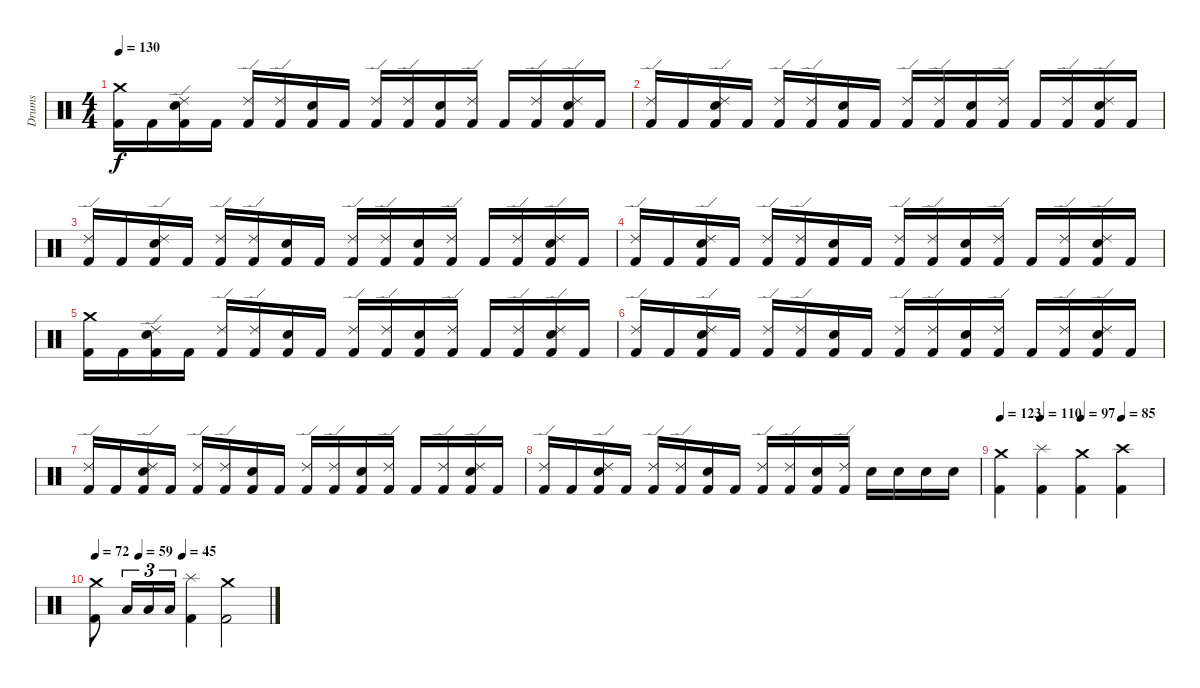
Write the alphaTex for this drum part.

\track ("Drums" "Drums") {instrument percussion}
\staff {score}
\articulation defaults
\ts (4 4)
\tempo 130
\clef neutral
\ks c
("Crash medium (hit)" "Kick (hit) 2").16{dy f} "Kick (hit) 2".16 ("Electric Snare (hit)" "Ride (edge) 2" "Kick (hit) 2").16 "Kick (hit) 2".16 ("Ride (edge) 2" "Kick (hit) 2").16 ("Ride (edge) 2" "Kick (hit) 2").16 ("Electric Snare (hit)" "Kick (hit) 2").16 "Kick (hit) 2".16 ("Ride (edge) 2" "Kick (hit) 2").16 ("Ride (edge) 2" "Kick (hit) 2").16 ("Electric Snare (hit)" "Kick (hit) 2").16 ("Ride (edge) 2" "Kick (hit) 2").16 "Kick (hit) 2".16 ("Ride (edge) 2" "Kick (hit) 2").16 ("Electric Snare (hit)" "Ride (edge) 2" "Kick (hit) 2").16 "Kick (hit) 2".16 |
("Ride (edge) 2" "Kick (hit) 2").16 "Kick (hit) 2".16 ("Electric Snare (hit)" "Ride (edge) 2" "Kick (hit) 2").16 "Kick (hit) 2".16 ("Ride (edge) 2" "Kick (hit) 2").16 ("Ride (edge) 2" "Kick (hit) 2").16 ("Electric Snare (hit)" "Kick (hit) 2").16 "Kick (hit) 2".16 ("Ride (edge) 2" "Kick (hit) 2").16 ("Ride (edge) 2" "Kick (hit) 2").16 ("Electric Snare (hit)" "Kick (hit) 2").16 ("Ride (edge) 2" "Kick (hit) 2").16 "Kick (hit) 2".16 ("Ride (edge) 2" "Kick (hit) 2").16 ("Electric Snare (hit)" "Ride (edge) 2" "Kick (hit) 2").16 "Kick (hit) 2".16 |
("Ride (edge) 2" "Kick (hit) 2").16 "Kick (hit) 2".16 ("Electric Snare (hit)" "Ride (edge) 2" "Kick (hit) 2").16 "Kick (hit) 2".16 ("Ride (edge) 2" "Kick (hit) 2").16 ("Ride (edge) 2" "Kick (hit) 2").16 ("Electric Snare (hit)" "Kick (hit) 2").16 "Kick (hit) 2".16 ("Ride (edge) 2" "Kick (hit) 2").16 ("Ride (edge) 2" "Kick (hit) 2").16 ("Electric Snare (hit)" "Kick (hit) 2").16 ("Ride (edge) 2" "Kick (hit) 2").16 "Kick (hit) 2".16 ("Ride (edge) 2" "Kick (hit) 2").16 ("Electric Snare (hit)" "Ride (edge) 2" "Kick (hit) 2").16 "Kick (hit) 2".16 |
("Ride (edge) 2" "Kick (hit) 2").16 "Kick (hit) 2".16 ("Electric Snare (hit)" "Ride (edge) 2" "Kick (hit) 2").16 "Kick (hit) 2".16 ("Ride (edge) 2" "Kick (hit) 2").16 ("Ride (edge) 2" "Kick (hit) 2").16 ("Electric Snare (hit)" "Kick (hit) 2").16 "Kick (hit) 2".16 ("Ride (edge) 2" "Kick (hit) 2").16 ("Ride (edge) 2" "Kick (hit) 2").16 ("Electric Snare (hit)" "Kick (hit) 2").16 ("Ride (edge) 2" "Kick (hit) 2").16 "Kick (hit) 2".16 ("Ride (edge) 2" "Kick (hit) 2").16 ("Electric Snare (hit)" "Ride (edge) 2" "Kick (hit) 2").16 "Kick (hit) 2".16 |
("Crash medium (hit)" "Kick (hit) 2").16 "Kick (hit) 2".16 ("Electric Snare (hit)" "Ride (edge) 2" "Kick (hit) 2").16 "Kick (hit) 2".16 ("Ride (edge) 2" "Kick (hit) 2").16 ("Ride (edge) 2" "Kick (hit) 2").16 ("Electric Snare (hit)" "Kick (hit) 2").16 "Kick (hit) 2".16 ("Ride (edge) 2" "Kick (hit) 2").16 ("Ride (edge) 2" "Kick (hit) 2").16 ("Electric Snare (hit)" "Kick (hit) 2").16 ("Ride (edge) 2" "Kick (hit) 2").16 "Kick (hit) 2".16 ("Ride (edge) 2" "Kick (hit) 2").16 ("Electric Snare (hit)" "Ride (edge) 2" "Kick (hit) 2").16 "Kick (hit) 2".16 |
("Ride (edge) 2" "Kick (hit) 2").16 "Kick (hit) 2".16 ("Electric Snare (hit)" "Ride (edge) 2" "Kick (hit) 2").16 "Kick (hit) 2".16 ("Ride (edge) 2" "Kick (hit) 2").16 ("Ride (edge) 2" "Kick (hit) 2").16 ("Electric Snare (hit)" "Kick (hit) 2").16 "Kick (hit) 2".16 ("Ride (edge) 2" "Kick (hit) 2").16 ("Ride (edge) 2" "Kick (hit) 2").16 ("Electric Snare (hit)" "Kick (hit) 2").16 ("Ride (edge) 2" "Kick (hit) 2").16 "Kick (hit) 2".16 ("Ride (edge) 2" "Kick (hit) 2").16 ("Electric Snare (hit)" "Ride (edge) 2" "Kick (hit) 2").16 "Kick (hit) 2".16 |
("Ride (edge) 2" "Kick (hit) 2").16 "Kick (hit) 2".16 ("Electric Snare (hit)" "Ride (edge) 2" "Kick (hit) 2").16 "Kick (hit) 2".16 ("Ride (edge) 2" "Kick (hit) 2").16 ("Ride (edge) 2" "Kick (hit) 2").16 ("Electric Snare (hit)" "Kick (hit) 2").16 "Kick (hit) 2".16 ("Ride (edge) 2" "Kick (hit) 2").16 ("Ride (edge) 2" "Kick (hit) 2").16 ("Electric Snare (hit)" "Kick (hit) 2").16 ("Ride (edge) 2" "Kick (hit) 2").16 "Kick (hit) 2".16 ("Ride (edge) 2" "Kick (hit) 2").16 ("Electric Snare (hit)" "Ride (edge) 2" "Kick (hit) 2").16 "Kick (hit) 2".16 |
("Ride (edge) 2" "Kick (hit) 2").16 "Kick (hit) 2".16 ("Electric Snare (hit)" "Ride (edge) 2" "Kick (hit) 2").16 "Kick (hit) 2".16 ("Ride (edge) 2" "Kick (hit) 2").16 ("Ride (edge) 2" "Kick (hit) 2").16 ("Electric Snare (hit)" "Kick (hit) 2").16 "Kick (hit) 2".16 ("Ride (edge) 2" "Kick (hit) 2").16 ("Ride (edge) 2" "Kick (hit) 2").16 ("Electric Snare (hit)" "Kick (hit) 2").16 ("Ride (edge) 2" "Kick (hit) 2").16 "Electric Snare (hit)".16 "Electric Snare (hit)".16 "Electric Snare (hit)".16 "Electric Snare (hit)".16 |
\tempo 123
\tempo (110 0.25)
\tempo (97 0.5)
\tempo (85 0.75)
("Crash medium (hit)" "Kick (hit) 2").4 ("Splash (hit)" "Kick (hit) 2").4 ("Crash medium (hit)" "Kick (hit) 2").4 ("Crash high (hit)" "Kick (hit) 2").4 |
\tempo 72
\tempo (59 0.25)
\tempo (45 0.5)
("Crash medium (hit)" "Kick (hit) 2").8 "Low Tom (hit)".16{tu (3 2)} "Low Tom (hit)".16{tu (3 2)} "Low Tom (hit)".16{tu (3 2)} ("Splash (hit)" "Kick (hit) 2").4 ("Crash medium (hit)" "Kick (hit) 2").2
